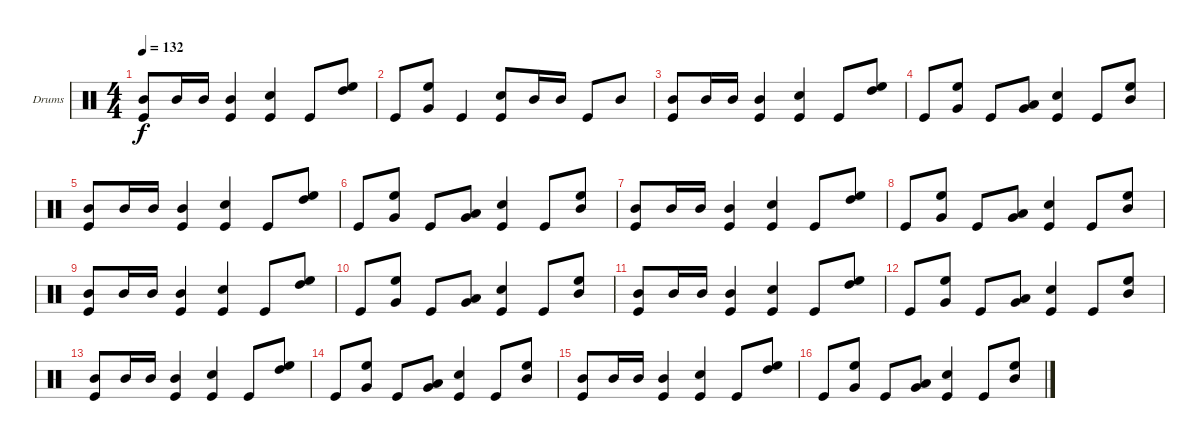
\defaultSystemsLayout 4
\bracketExtendMode groupsimilarinstruments
\firstSystemTrackNameOrientation horizontal
\otherSystemsTrackNameOrientation horizontal
\track ("Drumkit" "Drums") {instrument percussion}
\staff {score}
\articulation defaults
\ts (4 4)
\tempo 132
\clef neutral
\scale
0.333333
\ks c
("Kick (hit)" "Mid Tom (hit)").8{dy f} "Mid Tom (hit)".16 "Mid Tom (hit)".16 ("Mid Tom (hit)" "Kick (hit)").4 ("Kick (hit)" "Snare (hit) 2").4 "Kick (hit)".8 ("High Floor Tom (hit)" "High Tom (hit)").8 |
\scale
0.333333 "Kick (hit)".8 ("Very Low Tom (hit)" "High Floor Tom (hit)").8 "Kick (hit)".4 ("Kick (hit)" "Snare (hit) 2").8 "Mid Tom (hit)".16 "Mid Tom (hit)".16 "Kick (hit)".8 "Mid Tom (hit)".8 |
\scale
0.333333 ("Kick (hit)" "Mid Tom (hit)").8 "Mid Tom (hit)".16 "Mid Tom (hit)".16 ("Mid Tom (hit)" "Kick (hit)").4 ("Kick (hit)" "Snare (hit) 2").4 "Kick (hit)".8 ("High Floor Tom (hit)" "High Tom (hit)").8 |
\scale
0.333333 "Kick (hit)".8 ("Very Low Tom (hit)" "High Floor Tom (hit)").8 "Kick (hit)".8 ("Low Tom (hit)" "Very Low Tom (hit)").8 ("Kick (hit)" "Snare (hit) 2").4 "Kick (hit)".8 ("Mid Tom (hit)" "High Floor Tom (hit)").8 |
\scale
0.333333 ("Kick (hit)" "Mid Tom (hit)").8 "Mid Tom (hit)".16 "Mid Tom (hit)".16 ("Mid Tom (hit)" "Kick (hit)").4 ("Kick (hit)" "Snare (hit) 2").4 "Kick (hit)".8 ("High Floor Tom (hit)" "High Tom (hit)").8 |
\scale
0.333333 "Kick (hit)".8 ("Very Low Tom (hit)" "High Floor Tom (hit)").8 "Kick (hit)".8 ("Low Tom (hit)" "Very Low Tom (hit)").8 ("Kick (hit)" "Snare (hit) 2").4 "Kick (hit)".8 ("Mid Tom (hit)" "High Floor Tom (hit)").8 |
\scale
0.333333 ("Kick (hit)" "Mid Tom (hit)").8 "Mid Tom (hit)".16 "Mid Tom (hit)".16 ("Mid Tom (hit)" "Kick (hit)").4 ("Kick (hit)" "Snare (hit) 2").4 "Kick (hit)".8 ("High Floor Tom (hit)" "High Tom (hit)").8 |
\scale
0.333333 "Kick (hit)".8 ("Very Low Tom (hit)" "High Floor Tom (hit)").8 "Kick (hit)".8 ("Low Tom (hit)" "Very Low Tom (hit)").8 ("Kick (hit)" "Snare (hit) 2").4 "Kick (hit)".8 ("Mid Tom (hit)" "High Floor Tom (hit)").8 |
\scale
0.333333 ("Kick (hit)" "Mid Tom (hit)").8 "Mid Tom (hit)".16 "Mid Tom (hit)".16 ("Mid Tom (hit)" "Kick (hit)").4 ("Kick (hit)" "Snare (hit) 2").4 "Kick (hit)".8 ("High Floor Tom (hit)" "High Tom (hit)").8 |
\scale
0.333333 "Kick (hit)".8 ("Very Low Tom (hit)" "High Floor Tom (hit)").8 "Kick (hit)".8 ("Low Tom (hit)" "Very Low Tom (hit)").8 ("Kick (hit)" "Snare (hit) 2").4 "Kick (hit)".8 ("Mid Tom (hit)" "High Floor Tom (hit)").8 |
\scale
0.333333 ("Kick (hit)" "Mid Tom (hit)").8 "Mid Tom (hit)".16 "Mid Tom (hit)".16 ("Mid Tom (hit)" "Kick (hit)").4 ("Kick (hit)" "Snare (hit) 2").4 "Kick (hit)".8 ("High Floor Tom (hit)" "High Tom (hit)").8 |
\scale
0.333333 "Kick (hit)".8 ("Very Low Tom (hit)" "High Floor Tom (hit)").8 "Kick (hit)".8 ("Low Tom (hit)" "Very Low Tom (hit)").8 ("Kick (hit)" "Snare (hit) 2").4 "Kick (hit)".8 ("Mid Tom (hit)" "High Floor Tom (hit)").8 |
\scale
0.333333 ("Kick (hit)" "Mid Tom (hit)").8 "Mid Tom (hit)".16 "Mid Tom (hit)".16 ("Mid Tom (hit)" "Kick (hit)").4 ("Kick (hit)" "Snare (hit) 2").4 "Kick (hit)".8 ("High Floor Tom (hit)" "High Tom (hit)").8 |
\scale
0.333333 "Kick (hit)".8 ("Very Low Tom (hit)" "High Floor Tom (hit)").8 "Kick (hit)".8 ("Low Tom (hit)" "Very Low Tom (hit)").8 ("Kick (hit)" "Snare (hit) 2").4 "Kick (hit)".8 ("Mid Tom (hit)" "High Floor Tom (hit)").8 |
\scale
0.333333 ("Kick (hit)" "Mid Tom (hit)").8 "Mid Tom (hit)".16 "Mid Tom (hit)".16 ("Mid Tom (hit)" "Kick (hit)").4 ("Kick (hit)" "Snare (hit) 2").4 "Kick (hit)".8 ("High Floor Tom (hit)" "High Tom (hit)").8 |
\scale
0.333333 "Kick (hit)".8 ("Very Low Tom (hit)" "High Floor Tom (hit)").8 "Kick (hit)".8 ("Low Tom (hit)" "Very Low Tom (hit)").8 ("Kick (hit)" "Snare (hit) 2").4 "Kick (hit)".8 ("Mid Tom (hit)" "High Floor Tom (hit)").8
